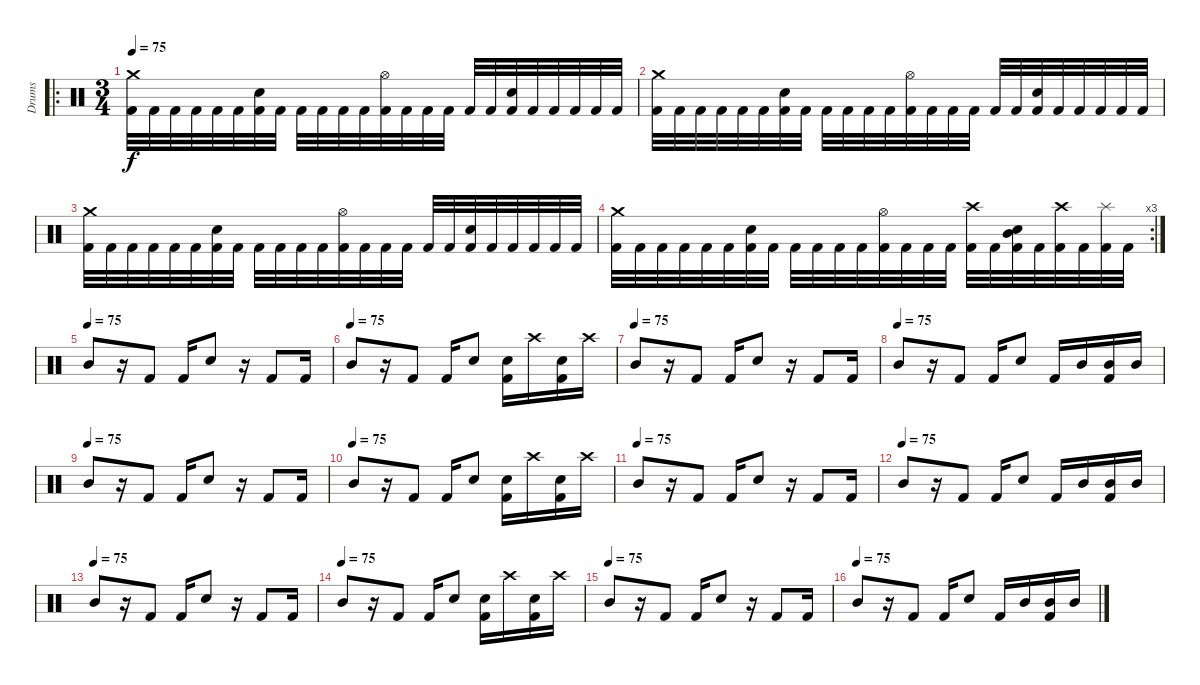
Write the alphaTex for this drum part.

\track ("Drums" "Drums") {instrument percussion}
\staff {score}
\articulation defaults
\ro
\ts (3 4)
\tempo 75
\clef neutral
\ks c
("Crash medium (hit)" "Kick (hit) 2").32{dy f} "Kick (hit) 2".32 "Kick (hit) 2".32 "Kick (hit) 2".32 "Kick (hit) 2".32 "Kick (hit) 2".32 ("Snare (hit) 2" "Kick (hit) 2").32 "Kick (hit) 2".32 "Kick (hit) 2".32 "Kick (hit) 2".32 "Kick (hit) 2".32 "Kick (hit) 2".32 ("Hi-Hat (open)" "Kick (hit) 2").32 "Kick (hit) 2".32 "Kick (hit) 2".32 "Kick (hit) 2".32 "Kick (hit) 2".32 "Kick (hit) 2".32 ("Snare (hit) 2" "Kick (hit) 2").32 "Kick (hit) 2".32 "Kick (hit) 2".32 "Kick (hit) 2".32 "Kick (hit) 2".32 "Kick (hit) 2".32 |
("Crash medium (hit)" "Kick (hit) 2").32 "Kick (hit) 2".32 "Kick (hit) 2".32 "Kick (hit) 2".32 "Kick (hit) 2".32 "Kick (hit) 2".32 ("Snare (hit) 2" "Kick (hit) 2").32 "Kick (hit) 2".32 "Kick (hit) 2".32 "Kick (hit) 2".32 "Kick (hit) 2".32 "Kick (hit) 2".32 ("Hi-Hat (open)" "Kick (hit) 2").32 "Kick (hit) 2".32 "Kick (hit) 2".32 "Kick (hit) 2".32 "Kick (hit) 2".32 "Kick (hit) 2".32 ("Snare (hit) 2" "Kick (hit) 2").32 "Kick (hit) 2".32 "Kick (hit) 2".32 "Kick (hit) 2".32 "Kick (hit) 2".32 "Kick (hit) 2".32 |
("Crash medium (hit)" "Kick (hit) 2").32 "Kick (hit) 2".32 "Kick (hit) 2".32 "Kick (hit) 2".32 "Kick (hit) 2".32 "Kick (hit) 2".32 ("Snare (hit) 2" "Kick (hit) 2").32 "Kick (hit) 2".32 "Kick (hit) 2".32 "Kick (hit) 2".32 "Kick (hit) 2".32 "Kick (hit) 2".32 ("Hi-Hat (open)" "Kick (hit) 2").32 "Kick (hit) 2".32 "Kick (hit) 2".32 "Kick (hit) 2".32 "Kick (hit) 2".32 "Kick (hit) 2".32 ("Snare (hit) 2" "Kick (hit) 2").32 "Kick (hit) 2".32 "Kick (hit) 2".32 "Kick (hit) 2".32 "Kick (hit) 2".32 "Kick (hit) 2".32 |
\rc 3
("Crash medium (hit)" "Kick (hit) 2").32 "Kick (hit) 2".32 "Kick (hit) 2".32 "Kick (hit) 2".32 "Kick (hit) 2".32 "Kick (hit) 2".32 ("Snare (hit) 2" "Kick (hit) 2").32 "Kick (hit) 2".32 "Kick (hit) 2".32 "Kick (hit) 2".32 "Kick (hit) 2".32 "Kick (hit) 2".32 ("Hi-Hat (open)" "Kick (hit) 2").32 "Kick (hit) 2".32 "Kick (hit) 2".32 "Kick (hit) 2".32 ("Crash high (hit)" "Kick (hit) 2").32 "Kick (hit) 2".32 ("Mid Tom (hit)" "Snare (hit) 2" "Kick (hit) 2").32 "Kick (hit) 2".32 ("Crash high (hit)" "Kick (hit) 2").32 "Kick (hit) 2".32 ("Splash (hit)" "Kick (hit) 2").32 "Kick (hit) 2".32 |
\tempo (75)
"Mid Tom (hit)".8 r.16 "Kick (hit) 2".8 "Kick (hit) 2".16 "Snare (hit) 2".8 r.16 "Kick (hit) 2".8 "Kick (hit) 2".16 |
\tempo (75)
"Mid Tom (hit)".8 r.16 "Kick (hit) 2".8 "Kick (hit) 2".16 "Snare (hit) 2".8 ("Snare (hit) 2" "Kick (hit) 2").16 "Crash high (hit)".16 ("Snare (hit) 2" "Kick (hit) 2").16 "Crash high (hit)".16 |
\tempo (75)
"Mid Tom (hit)".8 r.16 "Kick (hit) 2".8 "Kick (hit) 2".16 "Snare (hit) 2".8 r.16 "Kick (hit) 2".8 "Kick (hit) 2".16 |
\tempo (75)
"Mid Tom (hit)".8 r.16 "Kick (hit) 2".8 "Kick (hit) 2".16 "Snare (hit) 2".8 "Kick (hit) 2".16 "Mid Tom (hit)".16 ("Mid Tom (hit)" "Kick (hit) 2").16 "Mid Tom (hit)".16 |
\tempo (75)
"Mid Tom (hit)".8 r.16 "Kick (hit) 2".8 "Kick (hit) 2".16 "Snare (hit) 2".8 r.16 "Kick (hit) 2".8 "Kick (hit) 2".16 |
\tempo (75)
"Mid Tom (hit)".8 r.16 "Kick (hit) 2".8 "Kick (hit) 2".16 "Snare (hit) 2".8 ("Snare (hit) 2" "Kick (hit) 2").16 "Crash high (hit)".16 ("Snare (hit) 2" "Kick (hit) 2").16 "Crash high (hit)".16 |
\tempo (75)
"Mid Tom (hit)".8 r.16 "Kick (hit) 2".8 "Kick (hit) 2".16 "Snare (hit) 2".8 r.16 "Kick (hit) 2".8 "Kick (hit) 2".16 |
\tempo (75)
"Mid Tom (hit)".8 r.16 "Kick (hit) 2".8 "Kick (hit) 2".16 "Snare (hit) 2".8 "Kick (hit) 2".16 "Mid Tom (hit)".16 ("Mid Tom (hit)" "Kick (hit) 2").16 "Mid Tom (hit)".16 |
\tempo (75)
"Mid Tom (hit)".8 r.16 "Kick (hit) 2".8 "Kick (hit) 2".16 "Snare (hit) 2".8 r.16 "Kick (hit) 2".8 "Kick (hit) 2".16 |
\tempo (75)
"Mid Tom (hit)".8 r.16 "Kick (hit) 2".8 "Kick (hit) 2".16 "Snare (hit) 2".8 ("Snare (hit) 2" "Kick (hit) 2").16 "Crash high (hit)".16 ("Snare (hit) 2" "Kick (hit) 2").16 "Crash high (hit)".16 |
\tempo (75)
"Mid Tom (hit)".8 r.16 "Kick (hit) 2".8 "Kick (hit) 2".16 "Snare (hit) 2".8 r.16 "Kick (hit) 2".8 "Kick (hit) 2".16 |
\tempo (75)
"Mid Tom (hit)".8 r.16 "Kick (hit) 2".8 "Kick (hit) 2".16 "Snare (hit) 2".8 "Kick (hit) 2".16 "Mid Tom (hit)".16 ("Mid Tom (hit)" "Kick (hit) 2").16 "Mid Tom (hit)".16
